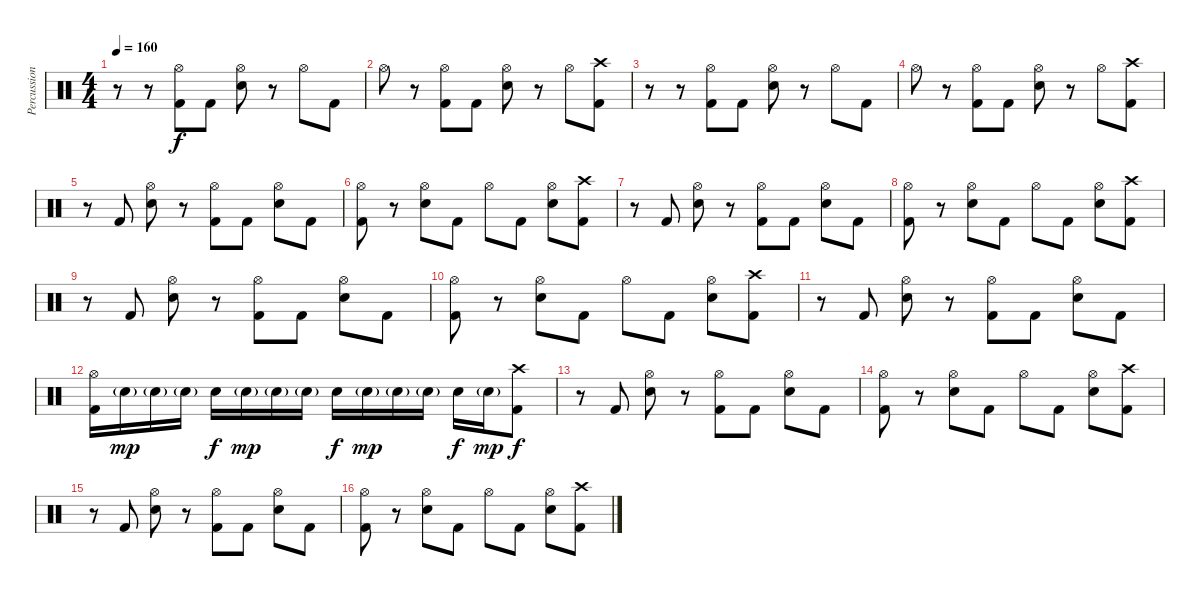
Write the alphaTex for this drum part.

\track ("Percussion" "Percussion") {instrument percussion}
\staff {score}
\articulation defaults
\ts (4 4)
\tempo 160
\clef neutral
\ks c
r.8{dy f} r.8 ("Hi-Hat (open)" "Kick (hit) 2").8 "Kick (hit) 2".8 ("Hi-Hat (open)" "Electric Snare (hit)").8 r.8 "Hi-Hat (open)".8 "Kick (hit) 2".8 |
"Hi-Hat (open)".8 r.8 ("Hi-Hat (open)" "Kick (hit) 2").8 "Kick (hit) 2".8 ("Hi-Hat (open)" "Electric Snare (hit)").8 r.8 "Hi-Hat (open)".8 ("Crash high (hit)" "Kick (hit) 2").8 |
r.8 r.8 ("Hi-Hat (open)" "Kick (hit) 2").8 "Kick (hit) 2".8 ("Hi-Hat (open)" "Electric Snare (hit)").8 r.8 "Hi-Hat (open)".8 "Kick (hit) 2".8 |
"Hi-Hat (open)".8 r.8 ("Hi-Hat (open)" "Kick (hit) 2").8 "Kick (hit) 2".8 ("Hi-Hat (open)" "Electric Snare (hit)").8 r.8 "Hi-Hat (open)".8 ("Crash high (hit)" "Kick (hit) 2").8 |
r.8 "Kick (hit) 2".8 ("Hi-Hat (open)" "Electric Snare (hit)").8 r.8 ("Hi-Hat (open)" "Kick (hit) 2").8 "Kick (hit) 2".8 ("Hi-Hat (open)" "Electric Snare (hit)").8 "Kick (hit) 2".8 |
("Hi-Hat (open)" "Kick (hit) 2").8 r.8 ("Hi-Hat (open)" "Electric Snare (hit)").8 "Kick (hit) 2".8 "Hi-Hat (open)".8 "Kick (hit) 2".8 ("Hi-Hat (open)" "Electric Snare (hit)").8 ("Crash high (hit)" "Kick (hit) 2").8 |
r.8 "Kick (hit) 2".8 ("Hi-Hat (open)" "Electric Snare (hit)").8 r.8 ("Hi-Hat (open)" "Kick (hit) 2").8 "Kick (hit) 2".8 ("Hi-Hat (open)" "Electric Snare (hit)").8 "Kick (hit) 2".8 |
("Hi-Hat (open)" "Kick (hit) 2").8 r.8 ("Hi-Hat (open)" "Electric Snare (hit)").8 "Kick (hit) 2".8 "Hi-Hat (open)".8 "Kick (hit) 2".8 ("Hi-Hat (open)" "Electric Snare (hit)").8 ("Crash high (hit)" "Kick (hit) 2").8 |
r.8 "Kick (hit) 2".8 ("Hi-Hat (open)" "Electric Snare (hit)").8 r.8 ("Hi-Hat (open)" "Kick (hit) 2").8 "Kick (hit) 2".8 ("Hi-Hat (open)" "Electric Snare (hit)").8 "Kick (hit) 2".8 |
("Hi-Hat (open)" "Kick (hit) 2").8 r.8 ("Hi-Hat (open)" "Electric Snare (hit)").8 "Kick (hit) 2".8 "Hi-Hat (open)".8 "Kick (hit) 2".8 ("Hi-Hat (open)" "Electric Snare (hit)").8 ("Crash high (hit)" "Kick (hit) 2").8 |
r.8 "Kick (hit) 2".8 ("Hi-Hat (open)" "Electric Snare (hit)").8 r.8 ("Hi-Hat (open)" "Kick (hit) 2").8 "Kick (hit) 2".8 ("Hi-Hat (open)" "Electric Snare (hit)").8 "Kick (hit) 2".8 |
("Hi-Hat (open)" "Kick (hit) 2").16 "Electric Snare (hit)"{g}.16{dy mp} "Electric Snare (hit)"{g}.16 "Electric Snare (hit)"{g}.16 "Electric Snare (hit)".16{dy f} "Electric Snare (hit)"{g}.16{dy mp} "Electric Snare (hit)"{g}.16 "Electric Snare (hit)"{g}.16 "Electric Snare (hit)".16{dy f} "Electric Snare (hit)"{g}.16{dy mp} "Electric Snare (hit)"{g}.16 "Electric Snare (hit)"{g}.16 "Electric Snare (hit)".16{dy f} "Electric Snare (hit)"{g}.16{dy mp} ("Crash high (hit)" "Kick (hit) 2").8{dy f} |
r.8 "Kick (hit) 2".8 ("Hi-Hat (open)" "Electric Snare (hit)").8 r.8 ("Hi-Hat (open)" "Kick (hit) 2").8 "Kick (hit) 2".8 ("Hi-Hat (open)" "Electric Snare (hit)").8 "Kick (hit) 2".8 |
("Hi-Hat (open)" "Kick (hit) 2").8 r.8 ("Hi-Hat (open)" "Electric Snare (hit)").8 "Kick (hit) 2".8 "Hi-Hat (open)".8 "Kick (hit) 2".8 ("Hi-Hat (open)" "Electric Snare (hit)").8 ("Crash high (hit)" "Kick (hit) 2").8 |
r.8 "Kick (hit) 2".8 ("Hi-Hat (open)" "Electric Snare (hit)").8 r.8 ("Hi-Hat (open)" "Kick (hit) 2").8 "Kick (hit) 2".8 ("Hi-Hat (open)" "Electric Snare (hit)").8 "Kick (hit) 2".8 |
("Hi-Hat (open)" "Kick (hit) 2").8 r.8 ("Hi-Hat (open)" "Electric Snare (hit)").8 "Kick (hit) 2".8 "Hi-Hat (open)".8 "Kick (hit) 2".8 ("Hi-Hat (open)" "Electric Snare (hit)").8 ("Crash high (hit)" "Kick (hit) 2").8
